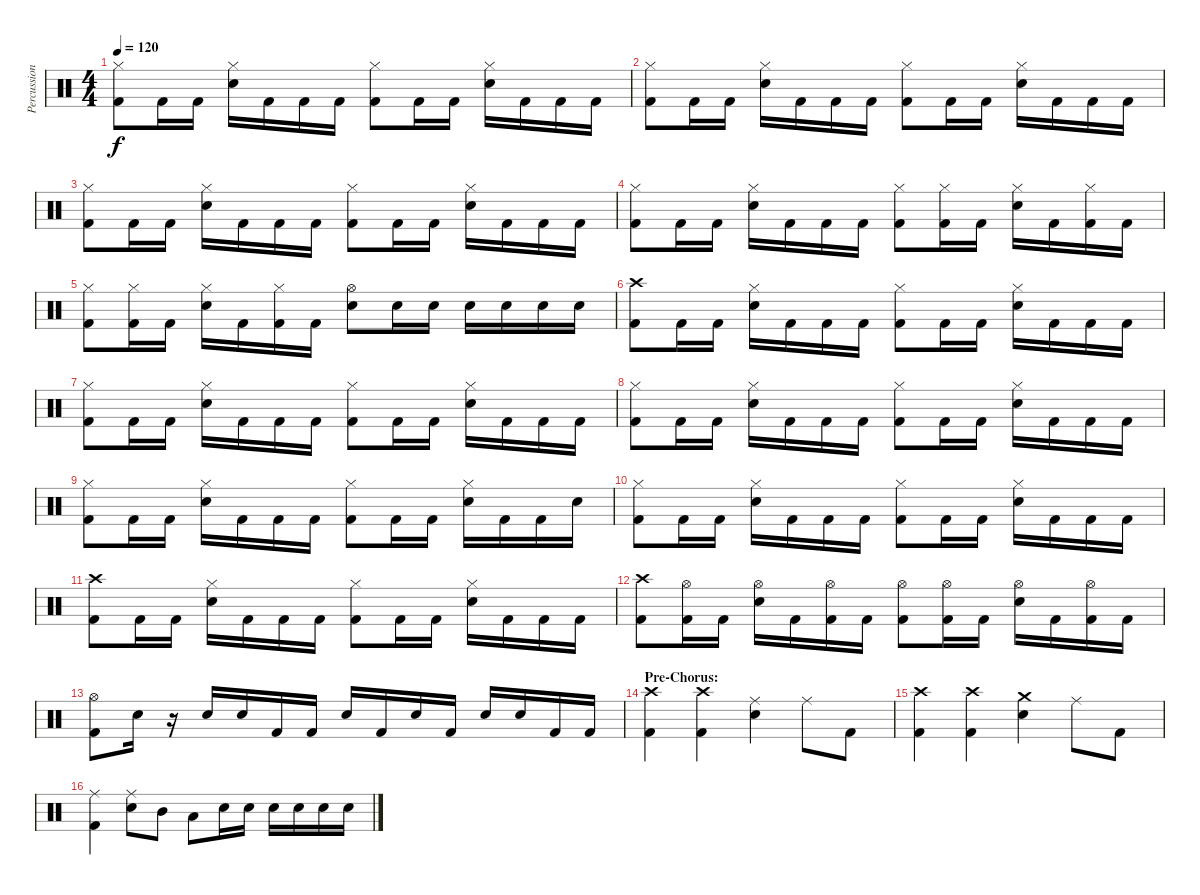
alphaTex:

\track ("Percussion" "Percussion") {instrument percussion}
\staff {score}
\articulation defaults
\ts (4 4)
\tempo 120
\clef neutral
\ks c
("Hi-Hat (closed)" "Kick (hit) 2").8{dy f} "Kick (hit) 2".16 "Kick (hit) 2".16 ("Hi-Hat (closed)" "Electric Snare (hit)").16 "Kick (hit) 2".16 "Kick (hit) 2".16 "Kick (hit) 2".16 ("Hi-Hat (closed)" "Kick (hit) 2").8 "Kick (hit) 2".16 "Kick (hit) 2".16 ("Hi-Hat (closed)" "Electric Snare (hit)").16 "Kick (hit) 2".16 "Kick (hit) 2".16 "Kick (hit) 2".16 |
("Hi-Hat (closed)" "Kick (hit) 2").8 "Kick (hit) 2".16 "Kick (hit) 2".16 ("Hi-Hat (closed)" "Electric Snare (hit)").16 "Kick (hit) 2".16 "Kick (hit) 2".16 "Kick (hit) 2".16 ("Hi-Hat (closed)" "Kick (hit) 2").8 "Kick (hit) 2".16 "Kick (hit) 2".16 ("Hi-Hat (closed)" "Electric Snare (hit)").16 "Kick (hit) 2".16 "Kick (hit) 2".16 "Kick (hit) 2".16 |
("Hi-Hat (closed)" "Kick (hit) 2").8 "Kick (hit) 2".16 "Kick (hit) 2".16 ("Hi-Hat (closed)" "Electric Snare (hit)").16 "Kick (hit) 2".16 "Kick (hit) 2".16 "Kick (hit) 2".16 ("Hi-Hat (closed)" "Kick (hit) 2").8 "Kick (hit) 2".16 "Kick (hit) 2".16 ("Hi-Hat (closed)" "Electric Snare (hit)").16 "Kick (hit) 2".16 "Kick (hit) 2".16 "Kick (hit) 2".16 |
("Hi-Hat (closed)" "Kick (hit) 2").8 "Kick (hit) 2".16 "Kick (hit) 2".16 ("Hi-Hat (closed)" "Electric Snare (hit)").16 "Kick (hit) 2".16 "Kick (hit) 2".16 "Kick (hit) 2".16 ("Hi-Hat (closed)" "Kick (hit) 2").8 ("Hi-Hat (closed)" "Kick (hit) 2").16 "Kick (hit) 2".16 ("Hi-Hat (closed)" "Electric Snare (hit)").16 "Kick (hit) 2".16 ("Hi-Hat (closed)" "Kick (hit) 2").16 "Kick (hit) 2".16 |
("Hi-Hat (closed)" "Kick (hit) 2").8 ("Hi-Hat (closed)" "Kick (hit) 2").16 "Kick (hit) 2".16 ("Hi-Hat (closed)" "Electric Snare (hit)").16 "Kick (hit) 2".16 ("Hi-Hat (closed)" "Kick (hit) 2").16 "Kick (hit) 2".16 ("Hi-Hat (open)" "Electric Snare (hit)").8 "Electric Snare (hit)".16 "Electric Snare (hit)".16 "Electric Snare (hit)".16 "Electric Snare (hit)".16 "Electric Snare (hit)".16 "Electric Snare (hit)".16 |
("Crash high (hit)" "Kick (hit) 2").8 "Kick (hit) 2".16 "Kick (hit) 2".16 ("Hi-Hat (closed)" "Electric Snare (hit)").16 "Kick (hit) 2".16 "Kick (hit) 2".16 "Kick (hit) 2".16 ("Hi-Hat (closed)" "Kick (hit) 2").8 "Kick (hit) 2".16 "Kick (hit) 2".16 ("Hi-Hat (closed)" "Electric Snare (hit)").16 "Kick (hit) 2".16 "Kick (hit) 2".16 "Kick (hit) 2".16 |
("Hi-Hat (closed)" "Kick (hit) 2").8 "Kick (hit) 2".16 "Kick (hit) 2".16 ("Hi-Hat (closed)" "Electric Snare (hit)").16 "Kick (hit) 2".16 "Kick (hit) 2".16 "Kick (hit) 2".16 ("Hi-Hat (closed)" "Kick (hit) 2").8 "Kick (hit) 2".16 "Kick (hit) 2".16 ("Hi-Hat (closed)" "Electric Snare (hit)").16 "Kick (hit) 2".16 "Kick (hit) 2".16 "Kick (hit) 2".16 |
("Hi-Hat (closed)" "Kick (hit) 2").8 "Kick (hit) 2".16 "Kick (hit) 2".16 ("Hi-Hat (closed)" "Electric Snare (hit)").16 "Kick (hit) 2".16 "Kick (hit) 2".16 "Kick (hit) 2".16 ("Hi-Hat (closed)" "Kick (hit) 2").8 "Kick (hit) 2".16 "Kick (hit) 2".16 ("Hi-Hat (closed)" "Electric Snare (hit)").16 "Kick (hit) 2".16 "Kick (hit) 2".16 "Kick (hit) 2".16 |
("Hi-Hat (closed)" "Kick (hit) 2").8 "Kick (hit) 2".16 "Kick (hit) 2".16 ("Hi-Hat (closed)" "Electric Snare (hit)").16 "Kick (hit) 2".16 "Kick (hit) 2".16 "Kick (hit) 2".16 ("Hi-Hat (closed)" "Kick (hit) 2").8 "Kick (hit) 2".16 "Kick (hit) 2".16 ("Hi-Hat (closed)" "Electric Snare (hit)").16 "Kick (hit) 2".16 "Kick (hit) 2".16 "Electric Snare (hit)".16 |
("Hi-Hat (closed)" "Kick (hit) 2").8 "Kick (hit) 2".16 "Kick (hit) 2".16 ("Hi-Hat (closed)" "Electric Snare (hit)").16 "Kick (hit) 2".16 "Kick (hit) 2".16 "Kick (hit) 2".16 ("Hi-Hat (closed)" "Kick (hit) 2").8 "Kick (hit) 2".16 "Kick (hit) 2".16 ("Hi-Hat (closed)" "Electric Snare (hit)").16 "Kick (hit) 2".16 "Kick (hit) 2".16 "Kick (hit) 2".16 |
("Crash high (hit)" "Kick (hit) 2").8 "Kick (hit) 2".16 "Kick (hit) 2".16 ("Hi-Hat (closed)" "Electric Snare (hit)").16 "Kick (hit) 2".16 "Kick (hit) 2".16 "Kick (hit) 2".16 ("Hi-Hat (closed)" "Kick (hit) 2").8 "Kick (hit) 2".16 "Kick (hit) 2".16 ("Hi-Hat (closed)" "Electric Snare (hit)").16 "Kick (hit) 2".16 "Kick (hit) 2".16 "Kick (hit) 2".16 |
("Crash high (hit)" "Kick (hit) 2").8 ("Hi-Hat (open)" "Kick (hit) 2").16 "Kick (hit) 2".16 ("Hi-Hat (open)" "Electric Snare (hit)").16 "Kick (hit) 2".16 ("Hi-Hat (open)" "Kick (hit) 2").16 "Kick (hit) 2".16 ("Hi-Hat (open)" "Kick (hit) 2").8 ("Hi-Hat (open)" "Kick (hit) 2").16 "Kick (hit) 2".16 ("Hi-Hat (open)" "Electric Snare (hit)").16 "Kick (hit) 2".16 ("Hi-Hat (open)" "Kick (hit) 2").16 "Kick (hit) 2".16 |
("Hi-Hat (open)" "Kick (hit) 2").8 "Electric Snare (hit)".16 r.16 "Electric Snare (hit)".16 "Electric Snare (hit)".16 "Kick (hit) 2".16 "Kick (hit) 2".16 "Electric Snare (hit)".16 "Kick (hit) 2".16 "Electric Snare (hit)".16 "Kick (hit) 2".16 "Electric Snare (hit)".16 "Electric Snare (hit)".16 "Kick (hit) 2".16 "Kick (hit) 2".16 |
\section ("" "Pre-Chorus:")
("Crash high (hit)" "Kick (hit) 2").4 ("Crash high (hit)" "Kick (hit) 2").4 ("Ride (middle)" "Electric Snare (hit)").4 "Ride (middle)".8 "Kick (hit) 2".8 |
("Crash high (hit)" "Kick (hit) 2").4 ("Crash high (hit)" "Kick (hit) 2").4 ("Crash medium (hit)" "Electric Snare (hit)").4 "Ride (middle)".8 "Kick (hit) 2".8 |
("Ride (middle)" "Kick (hit) 2").4 ("Ride (middle)" "Electric Snare (hit)").8 "Mid Tom (hit)".8 "Low Tom (hit)".8 "Electric Snare (hit)".16 "Electric Snare (hit)".16 "Electric Snare (hit)".16 "Electric Snare (hit)".16 "Electric Snare (hit)".16 "Electric Snare (hit)".16
